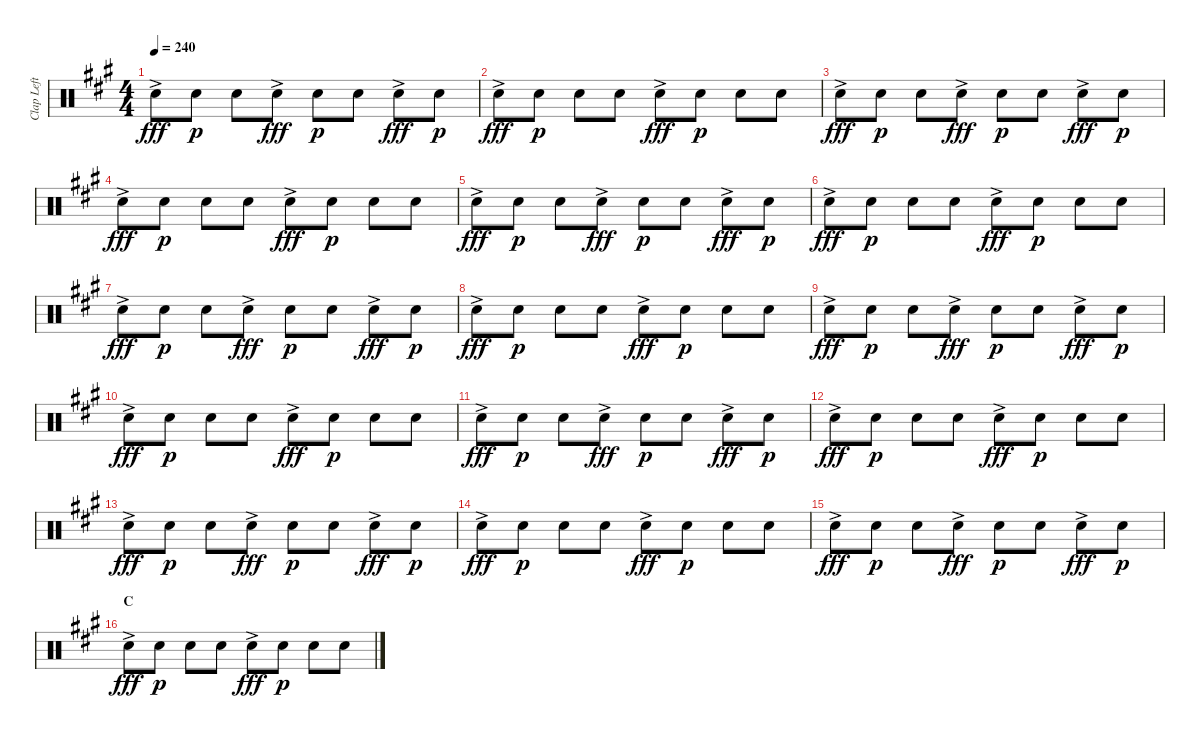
\track ("Clap Left" "Clap Left") {instrument percussion}
\staff {score}
\articulation defaults
\ts (4 4)
\tempo 240
\clef neutral
\ks a "Hand Clap (hit)"{ac}.8{dy fff} "Hand Clap (hit)".8{dy p} "Hand Clap (hit)".8 "Hand Clap (hit)"{ac}.8{dy fff} "Hand Clap (hit)".8{dy p} "Hand Clap (hit)".8 "Hand Clap (hit)"{ac}.8{dy fff} "Hand Clap (hit)".8{dy p}
|
"Hand Clap (hit)"{ac}.8{dy fff} "Hand Clap (hit)".8{dy p} "Hand Clap (hit)".8 "Hand Clap (hit)".8 "Hand Clap (hit)"{ac}.8{dy fff} "Hand Clap (hit)".8{dy p} "Hand Clap (hit)".8 "Hand Clap (hit)".8 |
"Hand Clap (hit)"{ac}.8{dy fff} "Hand Clap (hit)".8{dy p} "Hand Clap (hit)".8 "Hand Clap (hit)"{ac}.8{dy fff} "Hand Clap (hit)".8{dy p} "Hand Clap (hit)".8 "Hand Clap (hit)"{ac}.8{dy fff} "Hand Clap (hit)".8{dy p} |
"Hand Clap (hit)"{ac}.8{dy fff} "Hand Clap (hit)".8{dy p} "Hand Clap (hit)".8 "Hand Clap (hit)".8 "Hand Clap (hit)"{ac}.8{dy fff} "Hand Clap (hit)".8{dy p} "Hand Clap (hit)".8 "Hand Clap (hit)".8 |
"Hand Clap (hit)"{ac}.8{dy fff} "Hand Clap (hit)".8{dy p} "Hand Clap (hit)".8 "Hand Clap (hit)"{ac}.8{dy fff} "Hand Clap (hit)".8{dy p} "Hand Clap (hit)".8 "Hand Clap (hit)"{ac}.8{dy fff} "Hand Clap (hit)".8{dy p} |
"Hand Clap (hit)"{ac}.8{dy fff} "Hand Clap (hit)".8{dy p} "Hand Clap (hit)".8 "Hand Clap (hit)".8 "Hand Clap (hit)"{ac}.8{dy fff} "Hand Clap (hit)".8{dy p} "Hand Clap (hit)".8 "Hand Clap (hit)".8 |
"Hand Clap (hit)"{ac}.8{dy fff} "Hand Clap (hit)".8{dy p} "Hand Clap (hit)".8 "Hand Clap (hit)"{ac}.8{dy fff} "Hand Clap (hit)".8{dy p} "Hand Clap (hit)".8 "Hand Clap (hit)"{ac}.8{dy fff} "Hand Clap (hit)".8{dy p} |
"Hand Clap (hit)"{ac}.8{dy fff} "Hand Clap (hit)".8{dy p} "Hand Clap (hit)".8 "Hand Clap (hit)".8 "Hand Clap (hit)"{ac}.8{dy fff} "Hand Clap (hit)".8{dy p} "Hand Clap (hit)".8 "Hand Clap (hit)".8 |
"Hand Clap (hit)"{ac}.8{dy fff} "Hand Clap (hit)".8{dy p} "Hand Clap (hit)".8 "Hand Clap (hit)"{ac}.8{dy fff} "Hand Clap (hit)".8{dy p} "Hand Clap (hit)".8 "Hand Clap (hit)"{ac}.8{dy fff} "Hand Clap (hit)".8{dy p} |
"Hand Clap (hit)"{ac}.8{dy fff} "Hand Clap (hit)".8{dy p} "Hand Clap (hit)".8 "Hand Clap (hit)".8 "Hand Clap (hit)"{ac}.8{dy fff} "Hand Clap (hit)".8{dy p} "Hand Clap (hit)".8 "Hand Clap (hit)".8 |
"Hand Clap (hit)"{ac}.8{dy fff} "Hand Clap (hit)".8{dy p} "Hand Clap (hit)".8 "Hand Clap (hit)"{ac}.8{dy fff} "Hand Clap (hit)".8{dy p} "Hand Clap (hit)".8 "Hand Clap (hit)"{ac}.8{dy fff} "Hand Clap (hit)".8{dy p} |
"Hand Clap (hit)"{ac}.8{dy fff} "Hand Clap (hit)".8{dy p} "Hand Clap (hit)".8 "Hand Clap (hit)".8 "Hand Clap (hit)"{ac}.8{dy fff} "Hand Clap (hit)".8{dy p} "Hand Clap (hit)".8 "Hand Clap (hit)".8 |
"Hand Clap (hit)"{ac}.8{dy fff} "Hand Clap (hit)".8{dy p} "Hand Clap (hit)".8 "Hand Clap (hit)"{ac}.8{dy fff} "Hand Clap (hit)".8{dy p} "Hand Clap (hit)".8 "Hand Clap (hit)"{ac}.8{dy fff} "Hand Clap (hit)".8{dy p} |
"Hand Clap (hit)"{ac}.8{dy fff} "Hand Clap (hit)".8{dy p} "Hand Clap (hit)".8 "Hand Clap (hit)".8 "Hand Clap (hit)"{ac}.8{dy fff} "Hand Clap (hit)".8{dy p} "Hand Clap (hit)".8 "Hand Clap (hit)".8 |
"Hand Clap (hit)"{ac}.8{dy fff} "Hand Clap (hit)".8{dy p} "Hand Clap (hit)".8 "Hand Clap (hit)"{ac}.8{dy fff} "Hand Clap (hit)".8{dy p} "Hand Clap (hit)".8 "Hand Clap (hit)"{ac}.8{dy fff} "Hand Clap (hit)".8{dy p} |
\section ("" "C")
"Hand Clap (hit)"{ac}.8{dy fff} "Hand Clap (hit)".8{dy p} "Hand Clap (hit)".8 "Hand Clap (hit)".8 "Hand Clap (hit)"{ac}.8{dy fff} "Hand Clap (hit)".8{dy p} "Hand Clap (hit)".8 "Hand Clap (hit)".8
